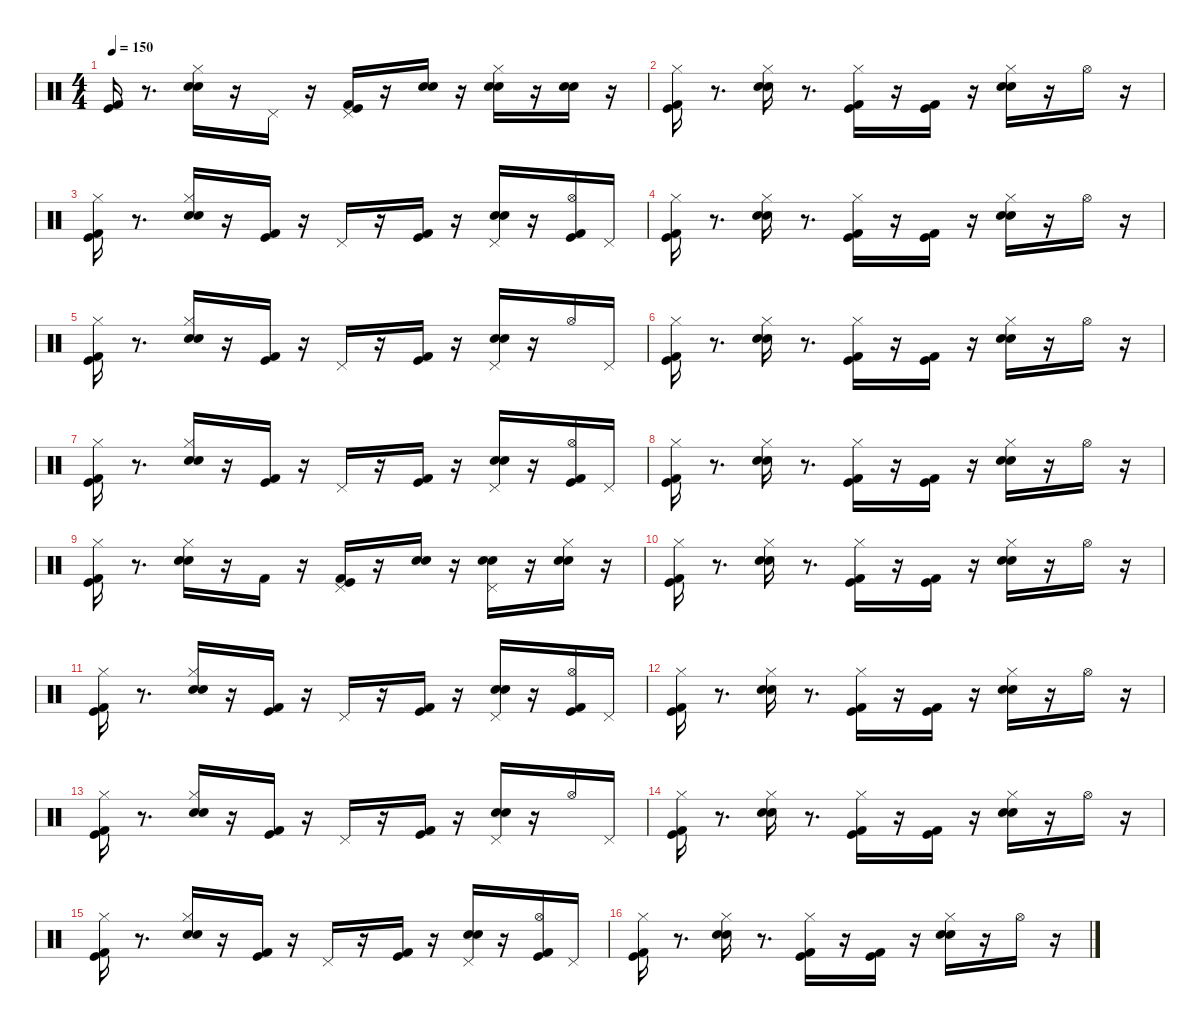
\defaultSystemsLayout 4
\hideDynamics
\bracketExtendMode nobrackets
\singleTrackTrackNamePolicy hidden
\multiTrackTrackNamePolicy hidden
\firstSystemTrackNameMode fullname
\firstSystemTrackNameOrientation horizontal
\otherSystemsTrackNameOrientation horizontal
\track ("Track 8" "drm.") {instrument percussion}
\staff {score}
\articulation defaults
\ts (4 4)
\tempo 150
\clef neutral
\ks c
("Kick (hit)" "Kick (hit) 2").16{dy fff beam Up} r.8{d beam Up} ("Hi-Hat (closed)" "Snare (hit) 2" "Snare (hit) 2").16{beam Down} r.16{beam Down} "Pedal Hi-Hat (hit)".16{beam Down} r.16{beam Down} ("Kick (hit)" "Kick (hit) 2" "Pedal Hi-Hat (hit)").16{beam Up} r.16{beam Up} ("Snare (hit) 2" "Snare (hit) 2").16{beam Up} r.16{beam Up} ("Hi-Hat (closed)" "Snare (hit) 2" "Snare (hit) 2").16{beam Down} r.16{beam Down} ("Snare (hit) 2" "Snare (hit) 2").16{beam Down} r.16{beam Down} |
("Kick (hit) 2" "Hi-Hat (closed)" "Kick (hit)").16{beam Down} r.8{d beam Down} ("Snare (hit) 2" "Snare (hit) 2" "Hi-Hat (closed)").16{beam Down} r.8{d beam Down} ("Kick (hit) 2" "Kick (hit)" "Hi-Hat (closed)").16{beam Down} r.16{beam Down} ("Kick (hit) 2" "Kick (hit)").16{beam Down} r.16{beam Down} ("Snare (hit) 2" "Snare (hit) 2" "Hi-Hat (closed)").16{beam Down} r.16{beam Down} "Hi-Hat (open)".16{beam Down} r.16{beam Down} |
("Kick (hit) 2" "Kick (hit)" "Hi-Hat (closed)").16{beam Down} r.8{d beam Down} ("Snare (hit) 2" "Snare (hit) 2" "Hi-Hat (closed)").16{beam Up} r.16{beam Up} ("Kick (hit) 2" "Kick (hit)").16{beam Up} r.16{beam Up} "Pedal Hi-Hat (hit)".16{beam Up} r.16{beam Up} ("Kick (hit) 2" "Kick (hit)").16{beam Up} r.16{beam Up} ("Snare (hit) 2" "Snare (hit) 2" "Pedal Hi-Hat (hit)").16{beam Up} r.16{beam Up} ("Kick (hit) 2" "Kick (hit)" "Hi-Hat (open)").16{beam Up} "Pedal Hi-Hat (hit)".16{beam Up} |
("Kick (hit)" "Kick (hit) 2" "Hi-Hat (closed)").16{beam Down} r.8{d beam Down} ("Snare (hit) 2" "Snare (hit) 2" "Hi-Hat (closed)").16{beam Down} r.8{d beam Down} ("Kick (hit)" "Kick (hit) 2" "Hi-Hat (closed)").16{beam Down} r.16{beam Down} ("Kick (hit)" "Kick (hit) 2").16{beam Down} r.16{beam Down} ("Snare (hit) 2" "Snare (hit) 2" "Hi-Hat (closed)").16{beam Down} r.16{beam Down} "Hi-Hat (open)".16{beam Down} r.16{beam Down} |
("Kick (hit)" "Kick (hit) 2" "Hi-Hat (closed)").16{beam Down} r.8{d beam Down} ("Snare (hit) 2" "Snare (hit) 2" "Hi-Hat (closed)").16{beam Up} r.16{beam Up} ("Kick (hit)" "Kick (hit) 2").16{beam Up} r.16{beam Up} "Pedal Hi-Hat (hit)".16{beam Up} r.16{beam Up} ("Kick (hit)" "Kick (hit) 2").16{beam Up} r.16{beam Up} ("Snare (hit) 2" "Snare (hit) 2" "Pedal Hi-Hat (hit)").16{beam Up} r.16{beam Up} "Hi-Hat (open)".16{beam Up} "Pedal Hi-Hat (hit)".16{beam Up} |
("Hi-Hat (closed)" "Kick (hit)" "Kick (hit) 2").16{beam Down} r.8{d beam Down} ("Hi-Hat (closed)" "Snare (hit) 2" "Snare (hit) 2").16{beam Down} r.8{d beam Down} ("Hi-Hat (closed)" "Kick (hit)" "Kick (hit) 2").16{beam Down} r.16{beam Down} ("Kick (hit)" "Kick (hit) 2").16{beam Down} r.16{beam Down} ("Hi-Hat (closed)" "Snare (hit) 2" "Snare (hit) 2").16{beam Down} r.16{beam Down} "Hi-Hat (open)".16{beam Down} r.16{beam Down} |
("Hi-Hat (closed)" "Kick (hit)" "Kick (hit) 2").16{beam Down} r.8{d beam Down} ("Hi-Hat (closed)" "Snare (hit) 2" "Snare (hit) 2").16{beam Up} r.16{beam Up} ("Kick (hit)" "Kick (hit) 2").16{beam Up} r.16{beam Up} "Pedal Hi-Hat (hit)".16{beam Up} r.16{beam Up} ("Kick (hit)" "Kick (hit) 2").16{beam Up} r.16{beam Up} ("Pedal Hi-Hat (hit)" "Snare (hit) 2" "Snare (hit) 2").16{beam Up} r.16{beam Up} ("Hi-Hat (open)" "Kick (hit)" "Kick (hit) 2").16{beam Up} "Pedal Hi-Hat (hit)".16{beam Up} |
("Hi-Hat (closed)" "Kick (hit) 2" "Kick (hit)").16{beam Down} r.8{d beam Down} ("Hi-Hat (closed)" "Snare (hit) 2" "Snare (hit) 2").16{beam Down} r.8{d beam Down} ("Hi-Hat (closed)" "Kick (hit) 2" "Kick (hit)").16{beam Down} r.16{beam Down} ("Kick (hit) 2" "Kick (hit)").16{beam Down} r.16{beam Down} ("Hi-Hat (closed)" "Snare (hit) 2" "Snare (hit) 2").16{beam Down} r.16{beam Down} "Hi-Hat (open)".16{beam Down} r.16{beam Down} |
("Hi-Hat (closed)" "Kick (hit) 2" "Kick (hit)").16{beam Down} r.8{d beam Down} ("Hi-Hat (closed)" "Snare (hit) 2" "Snare (hit) 2").16{beam Down} r.16{beam Down} "Kick (hit) 2".16{beam Down} r.16{beam Down} ("Pedal Hi-Hat (hit)" "Kick (hit) 2" "Kick (hit)").16{beam Up} r.16{beam Up} ("Snare (hit) 2" "Snare (hit) 2").16{dy f beam Up} r.16{beam Up} ("Pedal Hi-Hat (hit)" "Snare (hit) 2" "Snare (hit) 2").16{dy fff beam Down} r.16{beam Down} ("Snare (hit) 2" "Snare (hit) 2" "Hi-Hat (closed)").16{dy f beam Down} r.16{beam Down} |
("Kick (hit) 2" "Hi-Hat (closed)" "Kick (hit)").16{dy fff beam Down} r.8{d beam Down} ("Snare (hit) 2" "Snare (hit) 2" "Hi-Hat (closed)").16{beam Down} r.8{d beam Down} ("Kick (hit) 2" "Kick (hit)" "Hi-Hat (closed)").16{beam Down} r.16{beam Down} ("Kick (hit) 2" "Kick (hit)").16{beam Down} r.16{beam Down} ("Snare (hit) 2" "Snare (hit) 2" "Hi-Hat (closed)").16{beam Down} r.16{beam Down} "Hi-Hat (open)".16{beam Down} r.16{beam Down} |
("Kick (hit) 2" "Kick (hit)" "Hi-Hat (closed)").16{beam Down} r.8{d beam Down} ("Snare (hit) 2" "Snare (hit) 2" "Hi-Hat (closed)").16{beam Up} r.16{beam Up} ("Kick (hit) 2" "Kick (hit)").16{beam Up} r.16{beam Up} "Pedal Hi-Hat (hit)".16{beam Up} r.16{beam Up} ("Kick (hit) 2" "Kick (hit)").16{beam Up} r.16{beam Up} ("Snare (hit) 2" "Snare (hit) 2" "Pedal Hi-Hat (hit)").16{beam Up} r.16{beam Up} ("Kick (hit) 2" "Kick (hit)" "Hi-Hat (open)").16{beam Up} "Pedal Hi-Hat (hit)".16{beam Up} |
("Kick (hit)" "Kick (hit) 2" "Hi-Hat (closed)").16{beam Down} r.8{d beam Down} ("Snare (hit) 2" "Snare (hit) 2" "Hi-Hat (closed)").16{beam Down} r.8{d beam Down} ("Kick (hit)" "Kick (hit) 2" "Hi-Hat (closed)").16{beam Down} r.16{beam Down} ("Kick (hit)" "Kick (hit) 2").16{beam Down} r.16{beam Down} ("Snare (hit) 2" "Snare (hit) 2" "Hi-Hat (closed)").16{beam Down} r.16{beam Down} "Hi-Hat (open)".16{beam Down} r.16{beam Down} |
("Kick (hit)" "Kick (hit) 2" "Hi-Hat (closed)").16{beam Down} r.8{d beam Down} ("Snare (hit) 2" "Snare (hit) 2" "Hi-Hat (closed)").16{beam Up} r.16{beam Up} ("Kick (hit)" "Kick (hit) 2").16{beam Up} r.16{beam Up} "Pedal Hi-Hat (hit)".16{beam Up} r.16{beam Up} ("Kick (hit)" "Kick (hit) 2").16{beam Up} r.16{beam Up} ("Snare (hit) 2" "Snare (hit) 2" "Pedal Hi-Hat (hit)").16{beam Up} r.16{beam Up} "Hi-Hat (open)".16{beam Up} "Pedal Hi-Hat (hit)".16{beam Up} |
("Hi-Hat (closed)" "Kick (hit)" "Kick (hit) 2").16{beam Down} r.8{d beam Down} ("Hi-Hat (closed)" "Snare (hit) 2" "Snare (hit) 2").16{beam Down} r.8{d beam Down} ("Hi-Hat (closed)" "Kick (hit)" "Kick (hit) 2").16{beam Down} r.16{beam Down} ("Kick (hit)" "Kick (hit) 2").16{beam Down} r.16{beam Down} ("Hi-Hat (closed)" "Snare (hit) 2" "Snare (hit) 2").16{beam Down} r.16{beam Down} "Hi-Hat (open)".16{beam Down} r.16{beam Down} |
("Hi-Hat (closed)" "Kick (hit)" "Kick (hit) 2").16{beam Down} r.8{d beam Down} ("Hi-Hat (closed)" "Snare (hit) 2" "Snare (hit) 2").16{beam Up} r.16{beam Up} ("Kick (hit)" "Kick (hit) 2").16{beam Up} r.16{beam Up} "Pedal Hi-Hat (hit)".16{beam Up} r.16{beam Up} ("Kick (hit)" "Kick (hit) 2").16{beam Up} r.16{beam Up} ("Pedal Hi-Hat (hit)" "Snare (hit) 2" "Snare (hit) 2").16{beam Up} r.16{beam Up} ("Hi-Hat (open)" "Kick (hit)" "Kick (hit) 2").16{beam Up} "Pedal Hi-Hat (hit)".16{beam Up} |
("Hi-Hat (closed)" "Kick (hit) 2" "Kick (hit)").16{beam Down} r.8{d beam Down} ("Hi-Hat (closed)" "Snare (hit) 2" "Snare (hit) 2").16{beam Down} r.8{d beam Down} ("Hi-Hat (closed)" "Kick (hit) 2" "Kick (hit)").16{beam Down} r.16{beam Down} ("Kick (hit) 2" "Kick (hit)").16{beam Down} r.16{beam Down} ("Hi-Hat (closed)" "Snare (hit) 2" "Snare (hit) 2").16{beam Down} r.16{beam Down} "Hi-Hat (open)".16{beam Down} r.16{beam Down}
